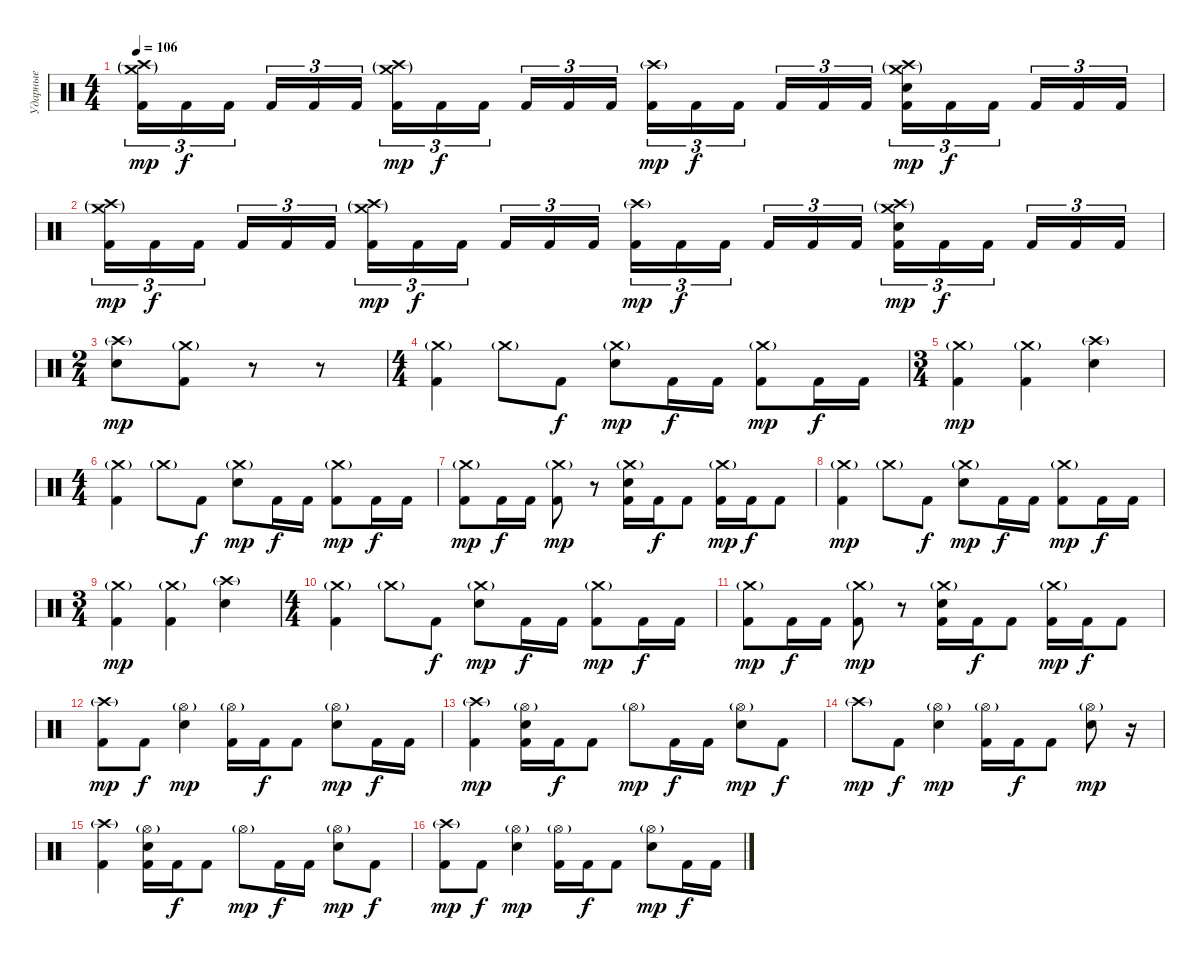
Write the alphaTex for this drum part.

\track ("Ударные" "Ударные") {instrument percussion}
\staff {score}
\articulation defaults
\ts (4 4)
\tempo 106
\clef neutral
\ks c
("Crash high (hit)"{g} "Crash medium (hit)"{g} "Kick (hit) 2").16{tu (3 2) dy mp} "Kick (hit) 2".16{tu (3 2) dy f} "Kick (hit) 2".16{tu (3 2) beam splitsecondary} "Kick (hit) 2".16{tu (3 2)} "Kick (hit) 2".16{tu (3 2)} "Kick (hit) 2".16{tu (3 2)} ("Crash high (hit)"{g} "Crash medium (hit)"{g} "Kick (hit) 2").16{tu (3 2) dy mp} "Kick (hit) 2".16{tu (3 2) dy f} "Kick (hit) 2".16{tu (3 2) beam splitsecondary} "Kick (hit) 2".16{tu (3 2)} "Kick (hit) 2".16{tu (3 2)} "Kick (hit) 2".16{tu (3 2)} ("Crash high (hit)"{g} "Kick (hit) 2").16{tu (3 2) dy mp} "Kick (hit) 2".16{tu (3 2) dy f} "Kick (hit) 2".16{tu (3 2) beam splitsecondary} "Kick (hit) 2".16{tu (3 2)} "Kick (hit) 2".16{tu (3 2)} "Kick (hit) 2".16{tu (3 2)} ("Crash high (hit)"{g} "Crash medium (hit)"{g} "Electric Snare (hit)" "Kick (hit) 2").16{tu (3 2) dy mp} "Kick (hit) 2".16{tu (3 2) dy f} "Kick (hit) 2".16{tu (3 2) beam splitsecondary} "Kick (hit) 2".16{tu (3 2)} "Kick (hit) 2".16{tu (3 2)} "Kick (hit) 2".16{tu (3 2)} |
("Crash high (hit)"{g} "Crash medium (hit)"{g} "Kick (hit) 2").16{tu (3 2) dy mp} "Kick (hit) 2".16{tu (3 2) dy f} "Kick (hit) 2".16{tu (3 2) beam splitsecondary} "Kick (hit) 2".16{tu (3 2)} "Kick (hit) 2".16{tu (3 2)} "Kick (hit) 2".16{tu (3 2)} ("Crash high (hit)"{g} "Crash medium (hit)"{g} "Kick (hit) 2").16{tu (3 2) dy mp} "Kick (hit) 2".16{tu (3 2) dy f} "Kick (hit) 2".16{tu (3 2) beam splitsecondary} "Kick (hit) 2".16{tu (3 2)} "Kick (hit) 2".16{tu (3 2)} "Kick (hit) 2".16{tu (3 2)} ("Crash high (hit)"{g} "Kick (hit) 2").16{tu (3 2) dy mp} "Kick (hit) 2".16{tu (3 2) dy f} "Kick (hit) 2".16{tu (3 2) beam splitsecondary} "Kick (hit) 2".16{tu (3 2)} "Kick (hit) 2".16{tu (3 2)} "Kick (hit) 2".16{tu (3 2)} ("Crash high (hit)"{g} "Crash medium (hit)"{g} "Electric Snare (hit)" "Kick (hit) 2").16{tu (3 2) dy mp} "Kick (hit) 2".16{tu (3 2) dy f} "Kick (hit) 2".16{tu (3 2) beam splitsecondary} "Kick (hit) 2".16{tu (3 2)} "Kick (hit) 2".16{tu (3 2)} "Kick (hit) 2".16{tu (3 2)} |
\ts (2 4)
("Crash high (hit)"{g} "Electric Snare (hit)").8{dy mp} ("Crash medium (hit)"{g} "Kick (hit) 2").8 r.8{volume 0} r.8 |
\ts (4 4)
("Crash medium (hit)"{g} "Kick (hit) 2").4{volume 16} "Crash medium (hit)"{g}.8 "Kick (hit) 2".8{dy f} ("Crash medium (hit)"{g} "Electric Snare (hit)").8{dy mp} "Kick (hit) 2".16{dy f} "Kick (hit) 2".16 ("Crash medium (hit)"{g} "Kick (hit) 2").8{dy mp} "Kick (hit) 2".16{dy f} "Kick (hit) 2".16 |
\ts (3 4)
("Crash medium (hit)"{g} "Kick (hit) 2").4{dy mp} ("Crash medium (hit)"{g} "Kick (hit) 2").4 ("Crash high (hit)"{g} "Electric Snare (hit)").4 |
\ts (4 4)
("Crash medium (hit)"{g} "Kick (hit) 2").4{volume 16} "Crash medium (hit)"{g}.8 "Kick (hit) 2".8{dy f} ("Crash medium (hit)"{g} "Electric Snare (hit)").8{dy mp} "Kick (hit) 2".16{dy f} "Kick (hit) 2".16 ("Crash medium (hit)"{g} "Kick (hit) 2").8{dy mp} "Kick (hit) 2".16{dy f} "Kick (hit) 2".16 |
("Crash medium (hit)"{g} "Kick (hit) 2").8{dy mp} "Kick (hit) 2".16{dy f} "Kick (hit) 2".16 ("Crash medium (hit)"{g} "Kick (hit) 2").8{dy mp} r.8 ("Crash medium (hit)"{g} "Electric Snare (hit)" "Kick (hit) 2").16 "Kick (hit) 2".16{dy f} "Kick (hit) 2".8 ("Crash medium (hit)"{g} "Kick (hit) 2").16{dy mp} "Kick (hit) 2".16{dy f} "Kick (hit) 2".8 |
("Crash medium (hit)"{g} "Kick (hit) 2").4{dy mp volume 16} "Crash medium (hit)"{g}.8 "Kick (hit) 2".8{dy f} ("Crash medium (hit)"{g} "Electric Snare (hit)").8{dy mp} "Kick (hit) 2".16{dy f} "Kick (hit) 2".16 ("Crash medium (hit)"{g} "Kick (hit) 2").8{dy mp} "Kick (hit) 2".16{dy f} "Kick (hit) 2".16 |
\ts (3 4)
("Crash medium (hit)"{g} "Kick (hit) 2").4{dy mp} ("Crash medium (hit)"{g} "Kick (hit) 2").4 ("Crash high (hit)"{g} "Electric Snare (hit)").4 |
\ts (4 4)
("Crash medium (hit)"{g} "Kick (hit) 2").4{volume 16} "Crash medium (hit)"{g}.8 "Kick (hit) 2".8{dy f} ("Crash medium (hit)"{g} "Electric Snare (hit)").8{dy mp} "Kick (hit) 2".16{dy f} "Kick (hit) 2".16 ("Crash medium (hit)"{g} "Kick (hit) 2").8{dy mp} "Kick (hit) 2".16{dy f} "Kick (hit) 2".16 |
("Crash medium (hit)"{g} "Kick (hit) 2").8{dy mp} "Kick (hit) 2".16{dy f} "Kick (hit) 2".16 ("Crash medium (hit)"{g} "Kick (hit) 2").8{dy mp} r.8 ("Crash medium (hit)"{g} "Electric Snare (hit)" "Kick (hit) 2").16 "Kick (hit) 2".16{dy f} "Kick (hit) 2".8 ("Crash medium (hit)"{g} "Kick (hit) 2").16{dy mp} "Kick (hit) 2".16{dy f} "Kick (hit) 2".8 |
("Crash high (hit)"{g} "Kick (hit) 2").8{dy mp} "Kick (hit) 2".8{dy f} ("Hi-Hat (open)"{g} "Electric Snare (hit)").4{dy mp} ("Hi-Hat (open)"{g} "Kick (hit) 2").16 "Kick (hit) 2".16{dy f} "Kick (hit) 2".8 ("Hi-Hat (open)"{g} "Electric Snare (hit)").8{dy mp} "Kick (hit) 2".16{dy f} "Kick (hit) 2".16 |
("Crash high (hit)"{g} "Kick (hit) 2").4{dy mp} ("Hi-Hat (open)"{g} "Electric Snare (hit)" "Kick (hit) 2").16 "Kick (hit) 2".16{dy f} "Kick (hit) 2".8 "Hi-Hat (open)"{g}.8{dy mp} "Kick (hit) 2".16{dy f} "Kick (hit) 2".16 ("Hi-Hat (open)"{g} "Electric Snare (hit)").8{dy mp} "Kick (hit) 2".8{dy f} |
"Crash high (hit)"{g}.8{dy mp} "Kick (hit) 2".8{dy f} ("Hi-Hat (open)"{g} "Electric Snare (hit)").4{dy mp} ("Hi-Hat (open)"{g} "Kick (hit) 2").16 "Kick (hit) 2".16{dy f} "Kick (hit) 2".8 ("Hi-Hat (open)"{g} "Electric Snare (hit)").8{dy mp} r.16 |
("Crash high (hit)"{g} "Kick (hit) 2").4 ("Hi-Hat (open)"{g} "Electric Snare (hit)" "Kick (hit) 2").16 "Kick (hit) 2".16{dy f} "Kick (hit) 2".8 "Hi-Hat (open)"{g}.8{dy mp} "Kick (hit) 2".16{dy f} "Kick (hit) 2".16 ("Hi-Hat (open)"{g} "Electric Snare (hit)").8{dy mp} "Kick (hit) 2".8{dy f} |
("Crash high (hit)"{g} "Kick (hit) 2").8{dy mp} "Kick (hit) 2".8{dy f} ("Hi-Hat (open)"{g} "Electric Snare (hit)").4{dy mp} ("Hi-Hat (open)"{g} "Kick (hit) 2").16 "Kick (hit) 2".16{dy f} "Kick (hit) 2".8 ("Hi-Hat (open)"{g} "Electric Snare (hit)").8{dy mp} "Kick (hit) 2".16{dy f} "Kick (hit) 2".16
